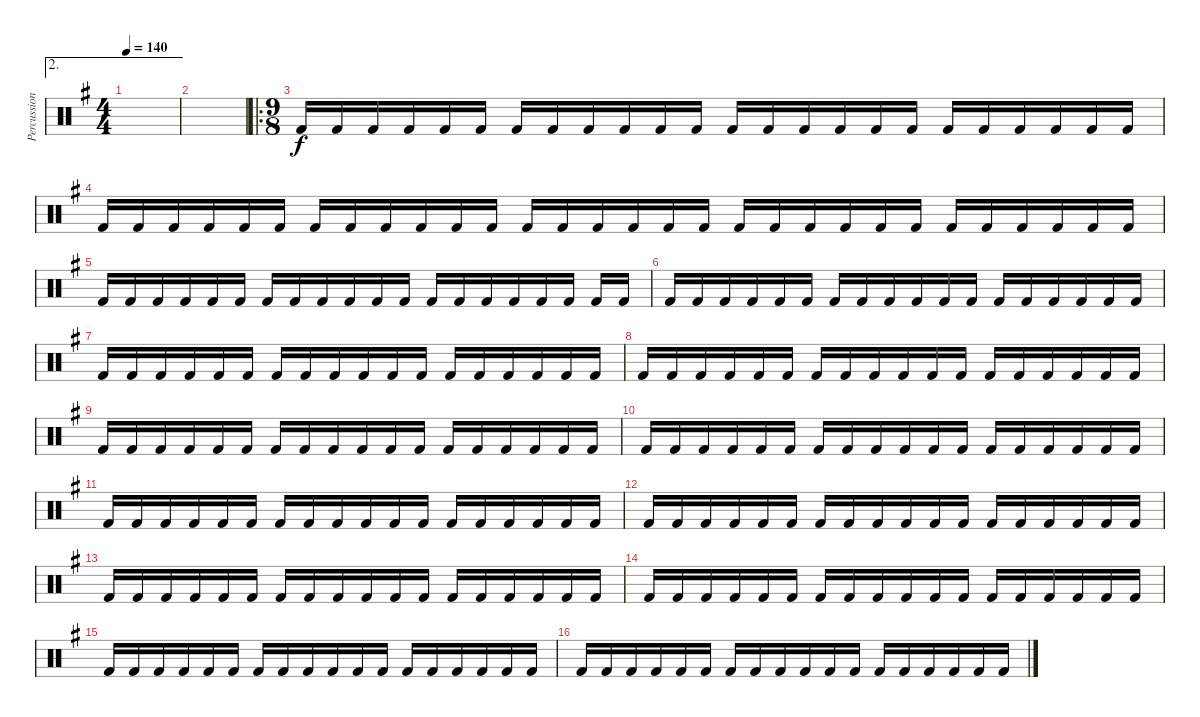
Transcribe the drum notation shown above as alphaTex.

\track ("Percussion" "Percussion") {instrument percussion}
\staff {score}
\articulation defaults
\ae 2
\ts (4 4)
\tempo 140
\clef neutral
\ks g
|
|
\ro
\ts (9 8)
"Kick (hit) 2".16 "Kick (hit) 2".16 "Kick (hit) 2".16 "Kick (hit) 2".16 "Kick (hit) 2".16 "Kick (hit) 2".16 "Kick (hit) 2".16 "Kick (hit) 2".16 "Kick (hit) 2".16 "Kick (hit) 2".16 "Kick (hit) 2".16 "Kick (hit) 2".16 "Kick (hit) 2".16 "Kick (hit) 2".16 "Kick (hit) 2".16 "Kick (hit) 2".16 "Kick (hit) 2".16 "Kick (hit) 2".16 "Kick (hit) 2".16 "Kick (hit) 2".16 "Kick (hit) 2".16 "Kick (hit) 2".16 "Kick (hit) 2".16 "Kick (hit) 2".16 |
"Kick (hit) 2".16 "Kick (hit) 2".16 "Kick (hit) 2".16 "Kick (hit) 2".16 "Kick (hit) 2".16 "Kick (hit) 2".16 "Kick (hit) 2".16 "Kick (hit) 2".16 "Kick (hit) 2".16 "Kick (hit) 2".16 "Kick (hit) 2".16 "Kick (hit) 2".16 "Kick (hit) 2".16 "Kick (hit) 2".16 "Kick (hit) 2".16 "Kick (hit) 2".16 "Kick (hit) 2".16 "Kick (hit) 2".16 "Kick (hit) 2".16 "Kick (hit) 2".16 "Kick (hit) 2".16 "Kick (hit) 2".16 "Kick (hit) 2".16 "Kick (hit) 2".16 "Kick (hit) 2".16 "Kick (hit) 2".16 "Kick (hit) 2".16 "Kick (hit) 2".16 "Kick (hit) 2".16 "Kick (hit) 2".16 |
"Kick (hit) 2".16 "Kick (hit) 2".16 "Kick (hit) 2".16 "Kick (hit) 2".16 "Kick (hit) 2".16 "Kick (hit) 2".16 "Kick (hit) 2".16 "Kick (hit) 2".16 "Kick (hit) 2".16 "Kick (hit) 2".16 "Kick (hit) 2".16 "Kick (hit) 2".16 "Kick (hit) 2".16 "Kick (hit) 2".16 "Kick (hit) 2".16 "Kick (hit) 2".16 "Kick (hit) 2".16 "Kick (hit) 2".16 "Kick (hit) 2".16 "Kick (hit) 2".16 |
"Kick (hit) 2".16 "Kick (hit) 2".16 "Kick (hit) 2".16 "Kick (hit) 2".16 "Kick (hit) 2".16 "Kick (hit) 2".16 "Kick (hit) 2".16 "Kick (hit) 2".16 "Kick (hit) 2".16 "Kick (hit) 2".16 "Kick (hit) 2".16 "Kick (hit) 2".16 "Kick (hit) 2".16 "Kick (hit) 2".16 "Kick (hit) 2".16 "Kick (hit) 2".16 "Kick (hit) 2".16 "Kick (hit) 2".16 |
"Kick (hit) 2".16 "Kick (hit) 2".16 "Kick (hit) 2".16 "Kick (hit) 2".16 "Kick (hit) 2".16 "Kick (hit) 2".16 "Kick (hit) 2".16 "Kick (hit) 2".16 "Kick (hit) 2".16 "Kick (hit) 2".16 "Kick (hit) 2".16 "Kick (hit) 2".16 "Kick (hit) 2".16 "Kick (hit) 2".16 "Kick (hit) 2".16 "Kick (hit) 2".16 "Kick (hit) 2".16 "Kick (hit) 2".16 |
"Kick (hit) 2".16 "Kick (hit) 2".16 "Kick (hit) 2".16 "Kick (hit) 2".16 "Kick (hit) 2".16 "Kick (hit) 2".16 "Kick (hit) 2".16 "Kick (hit) 2".16 "Kick (hit) 2".16 "Kick (hit) 2".16 "Kick (hit) 2".16 "Kick (hit) 2".16 "Kick (hit) 2".16 "Kick (hit) 2".16 "Kick (hit) 2".16 "Kick (hit) 2".16 "Kick (hit) 2".16 "Kick (hit) 2".16 |
"Kick (hit) 2".16 "Kick (hit) 2".16 "Kick (hit) 2".16 "Kick (hit) 2".16 "Kick (hit) 2".16 "Kick (hit) 2".16 "Kick (hit) 2".16 "Kick (hit) 2".16 "Kick (hit) 2".16 "Kick (hit) 2".16 "Kick (hit) 2".16 "Kick (hit) 2".16 "Kick (hit) 2".16 "Kick (hit) 2".16 "Kick (hit) 2".16 "Kick (hit) 2".16 "Kick (hit) 2".16 "Kick (hit) 2".16 |
"Kick (hit) 2".16 "Kick (hit) 2".16 "Kick (hit) 2".16 "Kick (hit) 2".16 "Kick (hit) 2".16 "Kick (hit) 2".16 "Kick (hit) 2".16 "Kick (hit) 2".16 "Kick (hit) 2".16 "Kick (hit) 2".16 "Kick (hit) 2".16 "Kick (hit) 2".16 "Kick (hit) 2".16 "Kick (hit) 2".16 "Kick (hit) 2".16 "Kick (hit) 2".16 "Kick (hit) 2".16 "Kick (hit) 2".16 |
"Kick (hit) 2".16 "Kick (hit) 2".16 "Kick (hit) 2".16 "Kick (hit) 2".16 "Kick (hit) 2".16 "Kick (hit) 2".16 "Kick (hit) 2".16 "Kick (hit) 2".16 "Kick (hit) 2".16 "Kick (hit) 2".16 "Kick (hit) 2".16 "Kick (hit) 2".16 "Kick (hit) 2".16 "Kick (hit) 2".16 "Kick (hit) 2".16 "Kick (hit) 2".16 "Kick (hit) 2".16 "Kick (hit) 2".16 |
"Kick (hit) 2".16 "Kick (hit) 2".16 "Kick (hit) 2".16 "Kick (hit) 2".16 "Kick (hit) 2".16 "Kick (hit) 2".16 "Kick (hit) 2".16 "Kick (hit) 2".16 "Kick (hit) 2".16 "Kick (hit) 2".16 "Kick (hit) 2".16 "Kick (hit) 2".16 "Kick (hit) 2".16 "Kick (hit) 2".16 "Kick (hit) 2".16 "Kick (hit) 2".16 "Kick (hit) 2".16 "Kick (hit) 2".16 |
"Kick (hit) 2".16 "Kick (hit) 2".16 "Kick (hit) 2".16 "Kick (hit) 2".16 "Kick (hit) 2".16 "Kick (hit) 2".16 "Kick (hit) 2".16 "Kick (hit) 2".16 "Kick (hit) 2".16 "Kick (hit) 2".16 "Kick (hit) 2".16 "Kick (hit) 2".16 "Kick (hit) 2".16 "Kick (hit) 2".16 "Kick (hit) 2".16 "Kick (hit) 2".16 "Kick (hit) 2".16 "Kick (hit) 2".16 |
"Kick (hit) 2".16 "Kick (hit) 2".16 "Kick (hit) 2".16 "Kick (hit) 2".16 "Kick (hit) 2".16 "Kick (hit) 2".16 "Kick (hit) 2".16 "Kick (hit) 2".16 "Kick (hit) 2".16 "Kick (hit) 2".16 "Kick (hit) 2".16 "Kick (hit) 2".16 "Kick (hit) 2".16 "Kick (hit) 2".16 "Kick (hit) 2".16 "Kick (hit) 2".16 "Kick (hit) 2".16 "Kick (hit) 2".16 |
"Kick (hit) 2".16 "Kick (hit) 2".16 "Kick (hit) 2".16 "Kick (hit) 2".16 "Kick (hit) 2".16 "Kick (hit) 2".16 "Kick (hit) 2".16 "Kick (hit) 2".16 "Kick (hit) 2".16 "Kick (hit) 2".16 "Kick (hit) 2".16 "Kick (hit) 2".16 "Kick (hit) 2".16 "Kick (hit) 2".16 "Kick (hit) 2".16 "Kick (hit) 2".16 "Kick (hit) 2".16 "Kick (hit) 2".16 |
"Kick (hit) 2".16 "Kick (hit) 2".16 "Kick (hit) 2".16 "Kick (hit) 2".16 "Kick (hit) 2".16 "Kick (hit) 2".16 "Kick (hit) 2".16 "Kick (hit) 2".16 "Kick (hit) 2".16 "Kick (hit) 2".16 "Kick (hit) 2".16 "Kick (hit) 2".16 "Kick (hit) 2".16 "Kick (hit) 2".16 "Kick (hit) 2".16 "Kick (hit) 2".16 "Kick (hit) 2".16 "Kick (hit) 2".16
